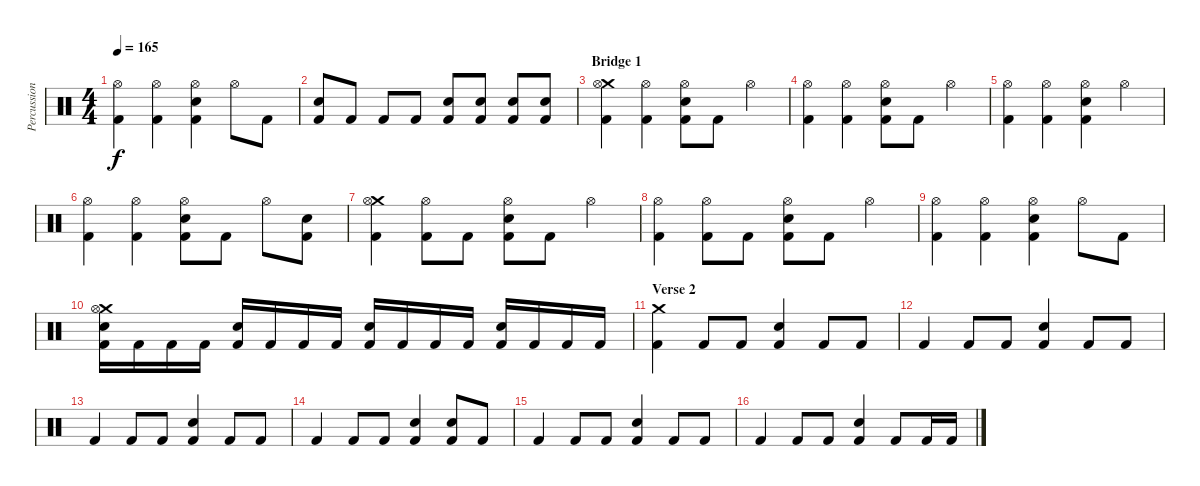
\track ("Percussions" "Percussion") {instrument percussion}
\staff {score}
\articulation defaults
\ts (4 4)
\tempo 165
\clef neutral
\ks c
("Hi-Hat (open)" "Kick (hit) 2").4{dy f} ("Hi-Hat (open)" "Kick (hit) 2").4 ("Hi-Hat (open)" "Electric Snare (hit)" "Kick (hit) 2").4 "Hi-Hat (open)".8 "Kick (hit) 2".8 |
("Electric Snare (hit)" "Kick (hit) 2").8 "Kick (hit) 2".8 "Kick (hit) 2".8 "Kick (hit) 2".8 ("Electric Snare (hit)" "Kick (hit) 2").8 ("Electric Snare (hit)" "Kick (hit) 2").8 ("Electric Snare (hit)" "Kick (hit) 2").8 ("Electric Snare (hit)" "Kick (hit) 2").8 |
\section ("" "Bridge 1")
("Crash medium (hit)" "Hi-Hat (open)" "Kick (hit) 2").4 ("Hi-Hat (open)" "Kick (hit) 2").4 ("Hi-Hat (open)" "Electric Snare (hit)" "Kick (hit) 2").8 "Kick (hit) 2".8 "Hi-Hat (open)".4 |
("Hi-Hat (open)" "Kick (hit) 2").4 ("Hi-Hat (open)" "Kick (hit) 2").4 ("Hi-Hat (open)" "Electric Snare (hit)" "Kick (hit) 2").8 "Kick (hit) 2".8 "Hi-Hat (open)".4 |
("Hi-Hat (open)" "Kick (hit) 2").4 ("Hi-Hat (open)" "Kick (hit) 2").4 ("Hi-Hat (open)" "Electric Snare (hit)" "Kick (hit) 2").4 "Hi-Hat (open)".4 |
("Hi-Hat (open)" "Kick (hit) 2").4 ("Hi-Hat (open)" "Kick (hit) 2").4 ("Hi-Hat (open)" "Electric Snare (hit)" "Kick (hit) 2").8 "Kick (hit) 2".8 "Hi-Hat (open)".8 ("Electric Snare (hit)" "Kick (hit) 2").8 |
("Crash medium (hit)" "Hi-Hat (open)" "Kick (hit) 2").4 ("Hi-Hat (open)" "Kick (hit) 2").8 "Kick (hit) 2".8 ("Hi-Hat (open)" "Electric Snare (hit)" "Kick (hit) 2").8 "Kick (hit) 2".8 "Hi-Hat (open)".4 |
("Hi-Hat (open)" "Kick (hit) 2").4 ("Hi-Hat (open)" "Kick (hit) 2").8 "Kick (hit) 2".8 ("Hi-Hat (open)" "Electric Snare (hit)" "Kick (hit) 2").8 "Kick (hit) 2".8 "Hi-Hat (open)".4 |
("Hi-Hat (open)" "Kick (hit) 2").4 ("Hi-Hat (open)" "Kick (hit) 2").4 ("Hi-Hat (open)" "Electric Snare (hit)" "Kick (hit) 2").4 "Hi-Hat (open)".8 "Kick (hit) 2".8 |
("Crash medium (hit)" "Hi-Hat (open)" "Electric Snare (hit)" "Kick (hit) 2").16 "Kick (hit) 2".16 "Kick (hit) 2".16 "Kick (hit) 2".16 ("Electric Snare (hit)" "Kick (hit) 2").16 "Kick (hit) 2".16 "Kick (hit) 2".16 "Kick (hit) 2".16 ("Electric Snare (hit)" "Kick (hit) 2").16 "Kick (hit) 2".16 "Kick (hit) 2".16 "Kick (hit) 2".16 ("Electric Snare (hit)" "Kick (hit) 2").16 "Kick (hit) 2".16 "Kick (hit) 2".16 "Kick (hit) 2".16 |
\section ("" "Verse 2")
("Crash medium (hit)" "Kick (hit) 2").4 "Kick (hit) 2".8 "Kick (hit) 2".8 ("Electric Snare (hit)" "Kick (hit) 2").4 "Kick (hit) 2".8 "Kick (hit) 2".8 |
"Kick (hit) 2".4 "Kick (hit) 2".8 "Kick (hit) 2".8 ("Electric Snare (hit)" "Kick (hit) 2").4 "Kick (hit) 2".8 "Kick (hit) 2".8 |
"Kick (hit) 2".4 "Kick (hit) 2".8 "Kick (hit) 2".8 ("Electric Snare (hit)" "Kick (hit) 2").4 "Kick (hit) 2".8 "Kick (hit) 2".8 |
"Kick (hit) 2".4 "Kick (hit) 2".8 "Kick (hit) 2".8 ("Electric Snare (hit)" "Kick (hit) 2").4 ("Electric Snare (hit)" "Kick (hit) 2").8 "Kick (hit) 2".8 |
"Kick (hit) 2".4 "Kick (hit) 2".8 "Kick (hit) 2".8 ("Electric Snare (hit)" "Kick (hit) 2").4 "Kick (hit) 2".8 "Kick (hit) 2".8 |
"Kick (hit) 2".4 "Kick (hit) 2".8 "Kick (hit) 2".8 ("Electric Snare (hit)" "Kick (hit) 2").4 "Kick (hit) 2".8 "Kick (hit) 2".16 "Kick (hit) 2".16
